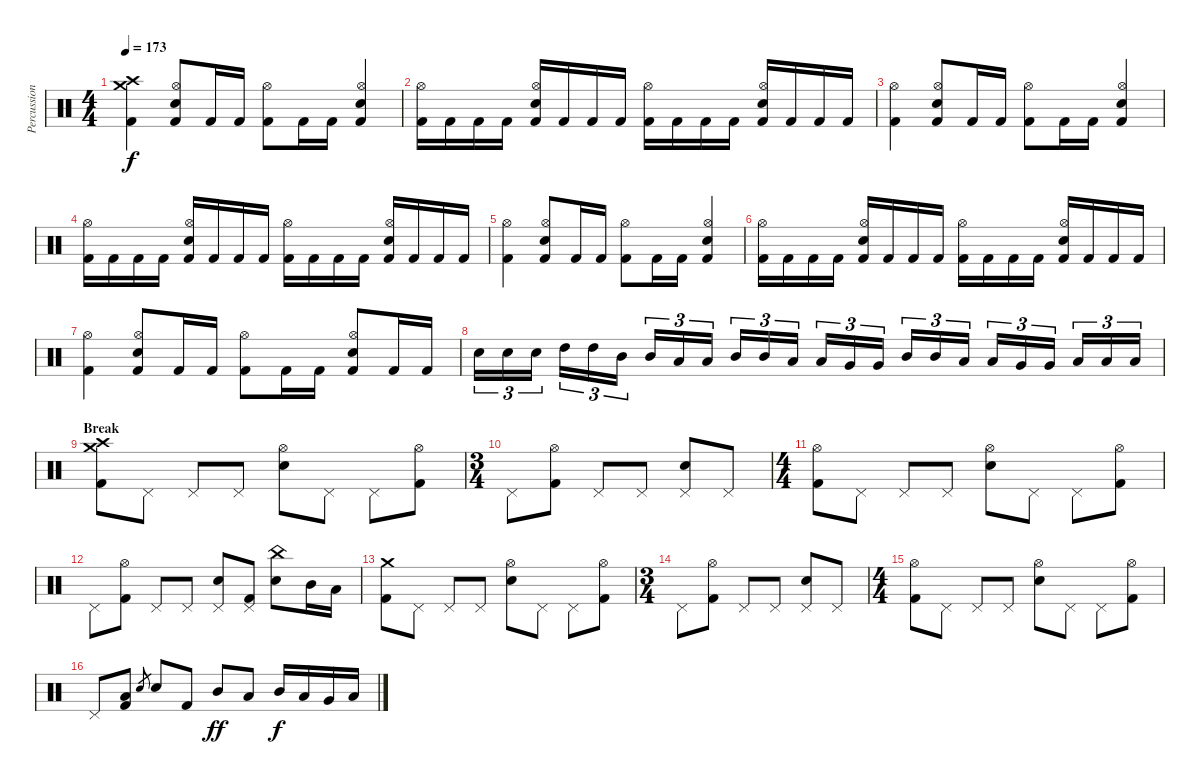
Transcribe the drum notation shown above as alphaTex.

\track ("Percussions" "Percussion") {instrument percussion}
\staff {score}
\articulation defaults
\ts (4 4)
\tempo 173
\clef neutral
\ks c
("Crash high (hit)" "Crash medium (hit)" "Kick (hit) 2").4{dy f} ("Hi-Hat (open)" "Electric Snare (hit)" "Kick (hit) 2").8 "Kick (hit) 2".16 "Kick (hit) 2".16 ("Hi-Hat (open)" "Kick (hit) 2").8 "Kick (hit) 2".16 "Kick (hit) 2".16 ("Hi-Hat (open)" "Electric Snare (hit)" "Kick (hit) 2").4 |
("Hi-Hat (open)" "Kick (hit) 2").16 "Kick (hit) 2".16 "Kick (hit) 2".16 "Kick (hit) 2".16 ("Hi-Hat (open)" "Electric Snare (hit)" "Kick (hit) 2").16 "Kick (hit) 2".16 "Kick (hit) 2".16 "Kick (hit) 2".16 ("Hi-Hat (open)" "Kick (hit) 2").16 "Kick (hit) 2".16 "Kick (hit) 2".16 "Kick (hit) 2".16 ("Hi-Hat (open)" "Electric Snare (hit)" "Kick (hit) 2").16 "Kick (hit) 2".16 "Kick (hit) 2".16 "Kick (hit) 2".16 |
("Hi-Hat (open)" "Kick (hit) 2").4 ("Hi-Hat (open)" "Electric Snare (hit)" "Kick (hit) 2").8 "Kick (hit) 2".16 "Kick (hit) 2".16 ("Hi-Hat (open)" "Kick (hit) 2").8 "Kick (hit) 2".16 "Kick (hit) 2".16 ("Hi-Hat (open)" "Electric Snare (hit)" "Kick (hit) 2").4 |
("Hi-Hat (open)" "Kick (hit) 2").16 "Kick (hit) 2".16 "Kick (hit) 2".16 "Kick (hit) 2".16 ("Hi-Hat (open)" "Electric Snare (hit)" "Kick (hit) 2").16 "Kick (hit) 2".16 "Kick (hit) 2".16 "Kick (hit) 2".16 ("Hi-Hat (open)" "Kick (hit) 2").16 "Kick (hit) 2".16 "Kick (hit) 2".16 "Kick (hit) 2".16 ("Hi-Hat (open)" "Electric Snare (hit)" "Kick (hit) 2").16 "Kick (hit) 2".16 "Kick (hit) 2".16 "Kick (hit) 2".16 |
("Hi-Hat (open)" "Kick (hit) 2").4 ("Hi-Hat (open)" "Electric Snare (hit)" "Kick (hit) 2").8 "Kick (hit) 2".16 "Kick (hit) 2".16 ("Hi-Hat (open)" "Kick (hit) 2").8 "Kick (hit) 2".16 "Kick (hit) 2".16 ("Hi-Hat (open)" "Electric Snare (hit)" "Kick (hit) 2").4 |
("Hi-Hat (open)" "Kick (hit) 2").16 "Kick (hit) 2".16 "Kick (hit) 2".16 "Kick (hit) 2".16 ("Hi-Hat (open)" "Electric Snare (hit)" "Kick (hit) 2").16 "Kick (hit) 2".16 "Kick (hit) 2".16 "Kick (hit) 2".16 ("Hi-Hat (open)" "Kick (hit) 2").16 "Kick (hit) 2".16 "Kick (hit) 2".16 "Kick (hit) 2".16 ("Hi-Hat (open)" "Electric Snare (hit)" "Kick (hit) 2").16 "Kick (hit) 2".16 "Kick (hit) 2".16 "Kick (hit) 2".16 |
("Hi-Hat (open)" "Kick (hit) 2").4 ("Hi-Hat (open)" "Electric Snare (hit)" "Kick (hit) 2").8 "Kick (hit) 2".16 "Kick (hit) 2".16 ("Hi-Hat (open)" "Kick (hit) 2").8 "Kick (hit) 2".16 "Kick (hit) 2".16 ("Hi-Hat (open)" "Electric Snare (hit)" "Kick (hit) 2").8 "Kick (hit) 2".16 "Kick (hit) 2".16 |
"Electric Snare (hit)".16{tu (3 2)} "Electric Snare (hit)".16{tu (3 2)} "Electric Snare (hit)".16{tu (3 2)} "High Tom (hit)".16{tu (3 2)} "High Tom (hit)".16{tu (3 2)} "Mid Tom (hit)".16{tu (3 2)} "Mid Tom (hit)".16{tu (3 2)} "Low Tom (hit)".16{tu (3 2)} "Low Tom (hit)".16{tu (3 2)} "Mid Tom (hit)".16{tu (3 2)} "Mid Tom (hit)".16{tu (3 2)} "Low Tom (hit)".16{tu (3 2)} "Low Tom (hit)".16{tu (3 2)} "Very Low Tom (hit)".16{tu (3 2)} "Very Low Tom (hit)".16{tu (3 2)} "Mid Tom (hit)".16{tu (3 2)} "Mid Tom (hit)".16{tu (3 2)} "Low Tom (hit)".16{tu (3 2)} "Low Tom (hit)".16{tu (3 2)} "Very Low Tom (hit)".16{tu (3 2)} "Very Low Tom (hit)".16{tu (3 2)} "Low Floor Tom (hit)".16{tu (3 2)} "Low Floor Tom (hit)".16{tu (3 2)} "Low Floor Tom (hit)".16{tu (3 2)} |
\section ("" "Break")
("Crash high (hit)" "Crash medium (hit)" "Kick (hit) 2").8 "Pedal Hi-Hat (hit)".8 "Pedal Hi-Hat (hit)".8 "Pedal Hi-Hat (hit)".8 ("Hi-Hat (open)" "Electric Snare (hit)").8 "Pedal Hi-Hat (hit)".8 "Pedal Hi-Hat (hit)".8 ("Hi-Hat (open)" "Kick (hit) 2").8 |
\ts (3 4)
"Pedal Hi-Hat (hit)".8 ("Hi-Hat (open)" "Kick (hit) 2").8 "Pedal Hi-Hat (hit)".8 "Pedal Hi-Hat (hit)".8 ("Pedal Hi-Hat (hit)" "Electric Snare (hit)").8 "Pedal Hi-Hat (hit)".8 |
\ts (4 4)
("Hi-Hat (open)" "Kick (hit) 2").8 "Pedal Hi-Hat (hit)".8 "Pedal Hi-Hat (hit)".8 "Pedal Hi-Hat (hit)".8 ("Hi-Hat (open)" "Electric Snare (hit)").8 "Pedal Hi-Hat (hit)".8 "Pedal Hi-Hat (hit)".8 ("Hi-Hat (open)" "Kick (hit) 2").8 |
"Pedal Hi-Hat (hit)".8 ("Hi-Hat (open)" "Kick (hit) 2").8 "Pedal Hi-Hat (hit)".8 "Pedal Hi-Hat (hit)".8 ("Pedal Hi-Hat (hit)" "Electric Snare (hit)").8 ("Pedal Hi-Hat (hit)" "Kick (hit) 2").8 ("China (hit)" "Electric Snare (hit)").8 "Mid Tom (hit)".16 "Low Tom (hit)".16 |
("Crash medium (hit)" "Kick (hit) 2").8 "Pedal Hi-Hat (hit)".8 "Pedal Hi-Hat (hit)".8 "Pedal Hi-Hat (hit)".8 ("Hi-Hat (open)" "Electric Snare (hit)").8 "Pedal Hi-Hat (hit)".8 "Pedal Hi-Hat (hit)".8 ("Hi-Hat (open)" "Kick (hit) 2").8 |
\ts (3 4)
"Pedal Hi-Hat (hit)".8 ("Hi-Hat (open)" "Kick (hit) 2").8 "Pedal Hi-Hat (hit)".8 "Pedal Hi-Hat (hit)".8 ("Pedal Hi-Hat (hit)" "Electric Snare (hit)").8 "Pedal Hi-Hat (hit)".8 |
\ts (4 4)
("Hi-Hat (open)" "Kick (hit) 2").8 "Pedal Hi-Hat (hit)".8 "Pedal Hi-Hat (hit)".8 "Pedal Hi-Hat (hit)".8 ("Hi-Hat (open)" "Electric Snare (hit)").8 "Pedal Hi-Hat (hit)".8 "Pedal Hi-Hat (hit)".8 ("Hi-Hat (open)" "Kick (hit) 2").8 |
"Pedal Hi-Hat (hit)".8 ("Low Tom (hit)" "Kick (hit) 2").8 "Electric Snare (hit)".8{gr} "Electric Snare (hit)".8 "Kick (hit) 2".8 "Mid Tom (hit)".8{dy ff} "Low Tom (hit)".8 "Mid Tom (hit)".16{dy f} "Low Tom (hit)".16 "Very Low Tom (hit)".16 "Low Floor Tom (hit)".16
